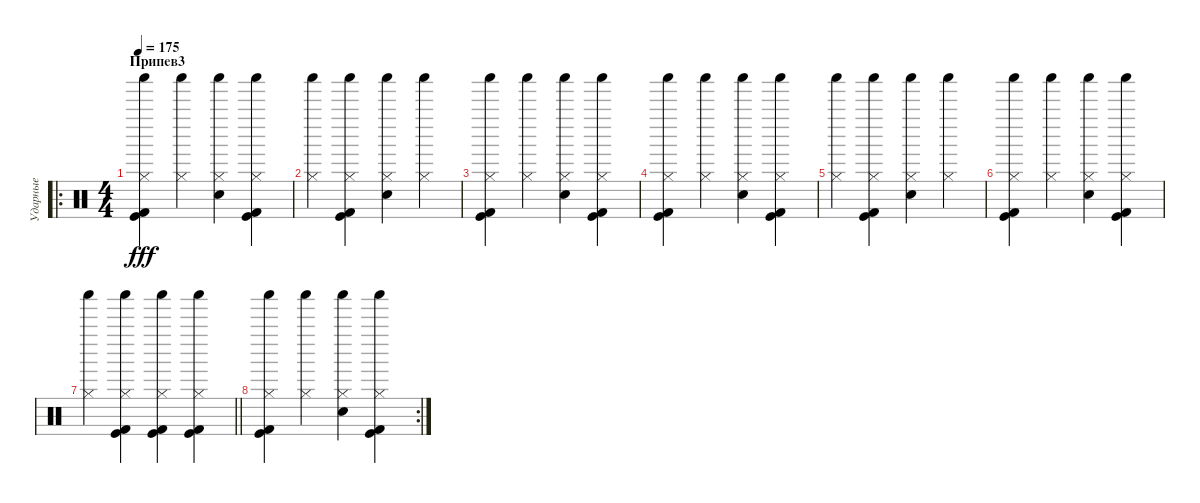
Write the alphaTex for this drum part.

\track ("Ударные" "Ударные") {instrument percussion}
\staff {score}
\articulation defaults
\ro
\ts (4 4)
\section ("" "Припев3")
\tempo 175
\clef neutral
\ks c
("Kick (hit) 2" "Hi-Hat (closed)" "Kick (hit)" "Shaker (hit)").4{dy fff} ("Hi-Hat (closed)" "Shaker (hit)").4 ("Hi-Hat (closed)" "Snare (hit) 2" "Shaker (hit)").4 ("Kick (hit) 2" "Hi-Hat (closed)" "Kick (hit)" "Shaker (hit)").4 |
("Hi-Hat (closed)" "Shaker (hit)").4 ("Kick (hit) 2" "Hi-Hat (closed)" "Kick (hit)" "Shaker (hit)").4 ("Hi-Hat (closed)" "Snare (hit) 2" "Shaker (hit)").4 ("Hi-Hat (closed)" "Shaker (hit)").4 |
("Kick (hit) 2" "Hi-Hat (closed)" "Kick (hit)" "Shaker (hit)").4 ("Hi-Hat (closed)" "Shaker (hit)").4 ("Hi-Hat (closed)" "Snare (hit) 2" "Shaker (hit)").4 ("Kick (hit) 2" "Hi-Hat (closed)" "Kick (hit)" "Shaker (hit)").4 |
("Kick (hit) 2" "Hi-Hat (closed)" "Kick (hit)" "Shaker (hit)").4 ("Hi-Hat (closed)" "Shaker (hit)").4 ("Hi-Hat (closed)" "Snare (hit) 2" "Shaker (hit)").4 ("Kick (hit) 2" "Hi-Hat (closed)" "Kick (hit)" "Shaker (hit)").4 |
("Hi-Hat (closed)" "Shaker (hit)").4 ("Kick (hit) 2" "Hi-Hat (closed)" "Kick (hit)" "Shaker (hit)").4 ("Hi-Hat (closed)" "Snare (hit) 2" "Shaker (hit)").4 ("Hi-Hat (closed)" "Shaker (hit)").4 |
("Kick (hit) 2" "Hi-Hat (closed)" "Kick (hit)" "Shaker (hit)").4 ("Hi-Hat (closed)" "Shaker (hit)").4 ("Hi-Hat (closed)" "Snare (hit) 2" "Shaker (hit)").4 ("Kick (hit) 2" "Hi-Hat (closed)" "Kick (hit)" "Shaker (hit)").4 |
\barLineRight lightlight
("Hi-Hat (closed)" "Shaker (hit)").4 ("Kick (hit) 2" "Hi-Hat (closed)" "Kick (hit)" "Shaker (hit)").4 ("Kick (hit) 2" "Hi-Hat (closed)" "Kick (hit)" "Shaker (hit)").4 ("Kick (hit) 2" "Hi-Hat (closed)" "Kick (hit)" "Shaker (hit)").4 |
\rc 2
("Kick (hit) 2" "Hi-Hat (closed)" "Kick (hit)" "Shaker (hit)").4 ("Hi-Hat (closed)" "Shaker (hit)").4 ("Hi-Hat (closed)" "Snare (hit) 2" "Shaker (hit)").4 ("Kick (hit) 2" "Hi-Hat (closed)" "Kick (hit)" "Shaker (hit)").4
